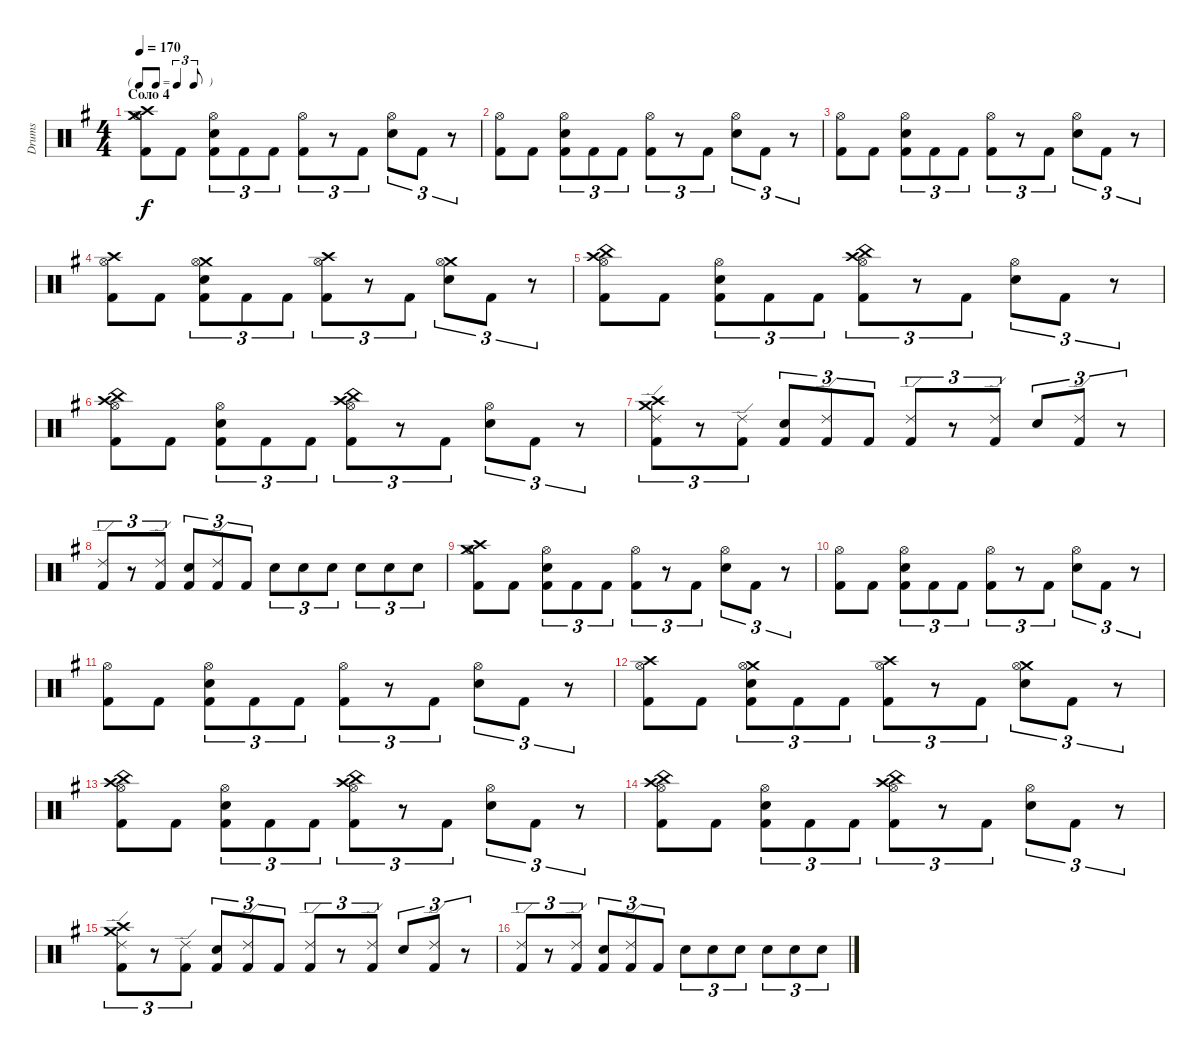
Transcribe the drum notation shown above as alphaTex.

\track ("Drums" "Drums") {instrument percussion}
\staff {score}
\articulation defaults
\ts (4 4)
\tf triplet8th
\section ("" "Соло 4")
\tempo 170
\clef neutral
\ks eminor
("Crash high (hit)" "Crash medium (hit)" "Hi-Hat (open)" "Kick (hit) 2").8{dy f} "Kick (hit) 2".8 ("Electric Snare (hit)" "Hi-Hat (open)" "Kick (hit) 2").8{tu (3 2)} "Kick (hit) 2".8{tu (3 2)} "Kick (hit) 2".8{tu (3 2)} ("Hi-Hat (open)" "Kick (hit) 2").8{tu (3 2)} r.8{tu (3 2)} "Kick (hit) 2".8{tu (3 2)} ("Electric Snare (hit)" "Hi-Hat (open)").8{tu (3 2)} "Kick (hit) 2".8{tu (3 2)} r.8{tu (3 2)} |
("Hi-Hat (open)" "Kick (hit) 2").8 "Kick (hit) 2".8 ("Electric Snare (hit)" "Hi-Hat (open)" "Kick (hit) 2").8{tu (3 2)} "Kick (hit) 2".8{tu (3 2)} "Kick (hit) 2".8{tu (3 2)} ("Hi-Hat (open)" "Kick (hit) 2").8{tu (3 2)} r.8{tu (3 2)} "Kick (hit) 2".8{tu (3 2)} ("Electric Snare (hit)" "Hi-Hat (open)").8{tu (3 2)} "Kick (hit) 2".8{tu (3 2)} r.8{tu (3 2)} |
("Hi-Hat (open)" "Kick (hit) 2").8 "Kick (hit) 2".8 ("Electric Snare (hit)" "Hi-Hat (open)" "Kick (hit) 2").8{tu (3 2)} "Kick (hit) 2".8{tu (3 2)} "Kick (hit) 2".8{tu (3 2)} ("Hi-Hat (open)" "Kick (hit) 2").8{tu (3 2)} r.8{tu (3 2)} "Kick (hit) 2".8{tu (3 2)} ("Electric Snare (hit)" "Hi-Hat (open)").8{tu (3 2)} "Kick (hit) 2".8{tu (3 2)} r.8{tu (3 2)} |
("Crash high (hit)" "Hi-Hat (open)" "Kick (hit) 2").8 "Kick (hit) 2".8 ("Crash medium (hit)" "Electric Snare (hit)" "Hi-Hat (open)" "Kick (hit) 2").8{tu (3 2)} "Kick (hit) 2".8{tu (3 2)} "Kick (hit) 2".8{tu (3 2)} ("Crash high (hit)" "Hi-Hat (open)" "Kick (hit) 2").8{tu (3 2)} r.8{tu (3 2)} "Kick (hit) 2".8{tu (3 2)} ("Crash medium (hit)" "Electric Snare (hit)" "Hi-Hat (open)").8{tu (3 2)} "Kick (hit) 2".8{tu (3 2)} r.8{tu (3 2)} |
("Crash high (hit)" "China (hit)" "Hi-Hat (open)" "Kick (hit) 2").8 "Kick (hit) 2".8 ("Electric Snare (hit)" "Hi-Hat (open)" "Kick (hit) 2").8{tu (3 2)} "Kick (hit) 2".8{tu (3 2)} "Kick (hit) 2".8{tu (3 2)} ("Crash high (hit)" "China (hit)" "Hi-Hat (open)" "Kick (hit) 2").8{tu (3 2)} r.8{tu (3 2)} "Kick (hit) 2".8{tu (3 2)} ("Electric Snare (hit)" "Hi-Hat (open)").8{tu (3 2)} "Kick (hit) 2".8{tu (3 2)} r.8{tu (3 2)} |
("Crash high (hit)" "China (hit)" "Hi-Hat (open)" "Kick (hit) 2").8 "Kick (hit) 2".8 ("Electric Snare (hit)" "Hi-Hat (open)" "Kick (hit) 2").8{tu (3 2)} "Kick (hit) 2".8{tu (3 2)} "Kick (hit) 2".8{tu (3 2)} ("Crash high (hit)" "China (hit)" "Hi-Hat (open)" "Kick (hit) 2").8{tu (3 2)} r.8{tu (3 2)} "Kick (hit) 2".8{tu (3 2)} ("Electric Snare (hit)" "Hi-Hat (open)").8{tu (3 2)} "Kick (hit) 2".8{tu (3 2)} r.8{tu (3 2)} |
("Crash high (hit)" "Crash medium (hit)" "Ride (edge) 2" "Kick (hit) 2").8{tu (3 2)} r.8{tu (3 2)} ("Ride (edge) 2" "Kick (hit) 2").8{tu (3 2)} ("Electric Snare (hit)" "Kick (hit) 2").8{tu (3 2)} ("Ride (edge) 2" "Kick (hit) 2").8{tu (3 2)} "Kick (hit) 2".8{tu (3 2)} ("Ride (edge) 2" "Kick (hit) 2").8{tu (3 2)} r.8{tu (3 2)} ("Ride (edge) 2" "Kick (hit) 2").8{tu (3 2)} "Electric Snare (hit)".8{tu (3 2)} ("Ride (edge) 2" "Kick (hit) 2").8{tu (3 2)} r.8{tu (3 2)} |
("Ride (edge) 2" "Kick (hit) 2").8{tu (3 2)} r.8{tu (3 2)} ("Ride (edge) 2" "Kick (hit) 2").8{tu (3 2)} ("Electric Snare (hit)" "Kick (hit) 2").8{tu (3 2)} ("Ride (edge) 2" "Kick (hit) 2").8{tu (3 2)} "Kick (hit) 2".8{tu (3 2)} "Electric Snare (hit)".8{tu (3 2)} "Electric Snare (hit)".8{tu (3 2)} "Electric Snare (hit)".8{tu (3 2)} "Electric Snare (hit)".8{tu (3 2)} "Electric Snare (hit)".8{tu (3 2)} "Electric Snare (hit)".8{tu (3 2)} |
("Crash high (hit)" "Crash medium (hit)" "Hi-Hat (open)" "Kick (hit) 2").8 "Kick (hit) 2".8 ("Electric Snare (hit)" "Hi-Hat (open)" "Kick (hit) 2").8{tu (3 2)} "Kick (hit) 2".8{tu (3 2)} "Kick (hit) 2".8{tu (3 2)} ("Hi-Hat (open)" "Kick (hit) 2").8{tu (3 2)} r.8{tu (3 2)} "Kick (hit) 2".8{tu (3 2)} ("Electric Snare (hit)" "Hi-Hat (open)").8{tu (3 2)} "Kick (hit) 2".8{tu (3 2)} r.8{tu (3 2)} |
("Hi-Hat (open)" "Kick (hit) 2").8 "Kick (hit) 2".8 ("Electric Snare (hit)" "Hi-Hat (open)" "Kick (hit) 2").8{tu (3 2)} "Kick (hit) 2".8{tu (3 2)} "Kick (hit) 2".8{tu (3 2)} ("Hi-Hat (open)" "Kick (hit) 2").8{tu (3 2)} r.8{tu (3 2)} "Kick (hit) 2".8{tu (3 2)} ("Electric Snare (hit)" "Hi-Hat (open)").8{tu (3 2)} "Kick (hit) 2".8{tu (3 2)} r.8{tu (3 2)} |
("Hi-Hat (open)" "Kick (hit) 2").8 "Kick (hit) 2".8 ("Electric Snare (hit)" "Hi-Hat (open)" "Kick (hit) 2").8{tu (3 2)} "Kick (hit) 2".8{tu (3 2)} "Kick (hit) 2".8{tu (3 2)} ("Hi-Hat (open)" "Kick (hit) 2").8{tu (3 2)} r.8{tu (3 2)} "Kick (hit) 2".8{tu (3 2)} ("Electric Snare (hit)" "Hi-Hat (open)").8{tu (3 2)} "Kick (hit) 2".8{tu (3 2)} r.8{tu (3 2)} |
("Crash high (hit)" "Hi-Hat (open)" "Kick (hit) 2").8 "Kick (hit) 2".8 ("Crash medium (hit)" "Electric Snare (hit)" "Hi-Hat (open)" "Kick (hit) 2").8{tu (3 2)} "Kick (hit) 2".8{tu (3 2)} "Kick (hit) 2".8{tu (3 2)} ("Crash high (hit)" "Hi-Hat (open)" "Kick (hit) 2").8{tu (3 2)} r.8{tu (3 2)} "Kick (hit) 2".8{tu (3 2)} ("Crash medium (hit)" "Electric Snare (hit)" "Hi-Hat (open)").8{tu (3 2)} "Kick (hit) 2".8{tu (3 2)} r.8{tu (3 2)} |
("Crash high (hit)" "China (hit)" "Hi-Hat (open)" "Kick (hit) 2").8 "Kick (hit) 2".8 ("Electric Snare (hit)" "Hi-Hat (open)" "Kick (hit) 2").8{tu (3 2)} "Kick (hit) 2".8{tu (3 2)} "Kick (hit) 2".8{tu (3 2)} ("Crash high (hit)" "China (hit)" "Hi-Hat (open)" "Kick (hit) 2").8{tu (3 2)} r.8{tu (3 2)} "Kick (hit) 2".8{tu (3 2)} ("Electric Snare (hit)" "Hi-Hat (open)").8{tu (3 2)} "Kick (hit) 2".8{tu (3 2)} r.8{tu (3 2)} |
("Crash high (hit)" "China (hit)" "Hi-Hat (open)" "Kick (hit) 2").8 "Kick (hit) 2".8 ("Electric Snare (hit)" "Hi-Hat (open)" "Kick (hit) 2").8{tu (3 2)} "Kick (hit) 2".8{tu (3 2)} "Kick (hit) 2".8{tu (3 2)} ("Crash high (hit)" "China (hit)" "Hi-Hat (open)" "Kick (hit) 2").8{tu (3 2)} r.8{tu (3 2)} "Kick (hit) 2".8{tu (3 2)} ("Electric Snare (hit)" "Hi-Hat (open)").8{tu (3 2)} "Kick (hit) 2".8{tu (3 2)} r.8{tu (3 2)} |
("Crash high (hit)" "Crash medium (hit)" "Ride (edge) 2" "Kick (hit) 2").8{tu (3 2)} r.8{tu (3 2)} ("Ride (edge) 2" "Kick (hit) 2").8{tu (3 2)} ("Electric Snare (hit)" "Kick (hit) 2").8{tu (3 2)} ("Ride (edge) 2" "Kick (hit) 2").8{tu (3 2)} "Kick (hit) 2".8{tu (3 2)} ("Ride (edge) 2" "Kick (hit) 2").8{tu (3 2)} r.8{tu (3 2)} ("Ride (edge) 2" "Kick (hit) 2").8{tu (3 2)} "Electric Snare (hit)".8{tu (3 2)} ("Ride (edge) 2" "Kick (hit) 2").8{tu (3 2)} r.8{tu (3 2)} |
("Ride (edge) 2" "Kick (hit) 2").8{tu (3 2)} r.8{tu (3 2)} ("Ride (edge) 2" "Kick (hit) 2").8{tu (3 2)} ("Electric Snare (hit)" "Kick (hit) 2").8{tu (3 2)} ("Ride (edge) 2" "Kick (hit) 2").8{tu (3 2)} "Kick (hit) 2".8{tu (3 2)} "Electric Snare (hit)".8{tu (3 2)} "Electric Snare (hit)".8{tu (3 2)} "Electric Snare (hit)".8{tu (3 2)} "Electric Snare (hit)".8{tu (3 2)} "Electric Snare (hit)".8{tu (3 2)} "Electric Snare (hit)".8{tu (3 2)}
